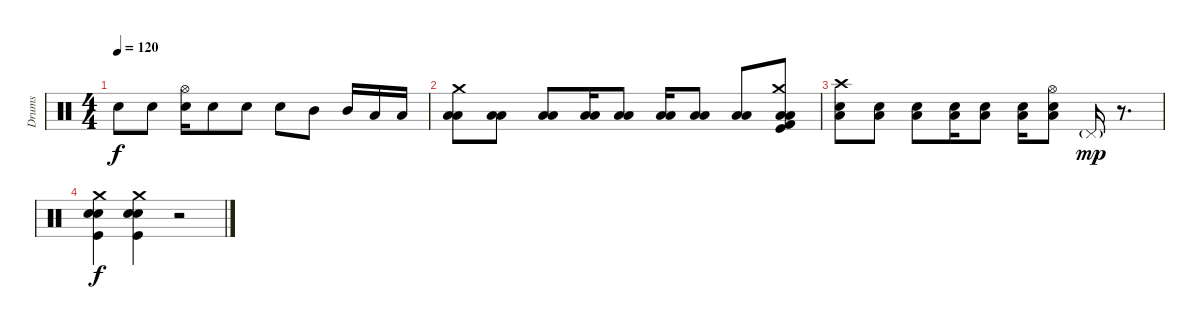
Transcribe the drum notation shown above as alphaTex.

\track ("Drums" "Drums") {instrument percussion}
\staff {score}
\articulation defaults
\ts (4 4)
\tempo 120
\clef neutral
\ks c "Snare (hit) 2".8{dy f} "Snare (hit) 2".8
("Hi-Hat (open)" "Snare (hit) 2").16 "Snare (hit) 2".8 "Snare (hit) 2".8 "Snare (hit) 2".8 "Mid Tom (hit)".8 "Mid Tom (hit)".16 "Low Tom (hit)".16 "Low Floor Tom (hit)".16 |
("Crash medium (hit)" "Low Floor Tom (hit)" "Low Tom (hit)").8 ("Low Floor Tom (hit)" "Low Tom (hit)").8 ("Low Floor Tom (hit)" "Low Tom (hit)").8 ("Low Floor Tom (hit)" "Low Tom (hit)").16 ("Low Floor Tom (hit)" "Low Tom (hit)").8 ("Low Floor Tom (hit)" "Low Tom (hit)").16 ("Low Floor Tom (hit)" "Low Tom (hit)").8 ("Low Floor Tom (hit)" "Low Tom (hit)").8 ("Crash medium (hit)" "Low Floor Tom (hit)" "Low Tom (hit)" "Kick (hit)" "Kick (hit) 2").8 |
("Crash high (hit)" "Low Floor Tom (hit)" "Snare (hit) 2").8 ("Low Floor Tom (hit)" "Snare (hit) 2").8 ("Low Floor Tom (hit)" "Snare (hit) 2").8 ("Low Floor Tom (hit)" "Snare (hit) 2").16 ("Low Floor Tom (hit)" "Snare (hit) 2").8 ("Low Floor Tom (hit)" "Snare (hit) 2").16 ("Hi-Hat (open)" "Low Floor Tom (hit)" "Snare (hit) 2").8 "Pedal Hi-Hat (hit)"{g}.16{dy mp} r.8{d} |
("Crash medium (hit)" "Snare (hit) 2" "Kick (hit)" "Electric Snare (hit)").4{dy f} ("Crash medium (hit)" "Snare (hit) 2" "Kick (hit)" "Electric Snare (hit)").4 r.2
